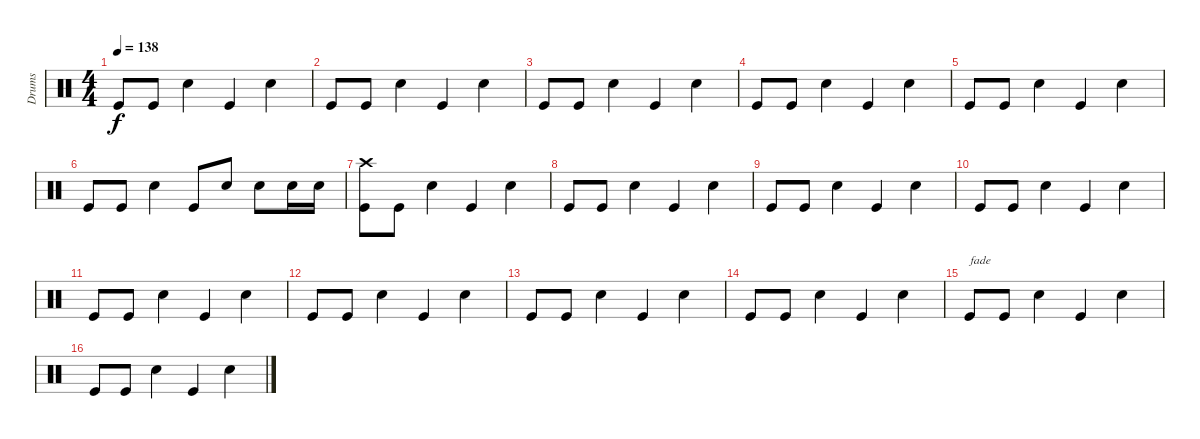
\track ("Drums" "Drums") {instrument percussion}
\staff {score}
\articulation defaults
\ts (4 4)
\tempo 138
\clef neutral
\ks c "Kick (hit)".8{dy f} "Kick (hit)".8 "Snare (hit) 2".4 "Kick (hit)".4 "Snare (hit) 2".4
|
"Kick (hit)".8 "Kick (hit)".8 "Snare (hit) 2".4 "Kick (hit)".4 "Snare (hit) 2".4 |
"Kick (hit)".8 "Kick (hit)".8 "Snare (hit) 2".4 "Kick (hit)".4 "Snare (hit) 2".4 |
"Kick (hit)".8 "Kick (hit)".8 "Snare (hit) 2".4 "Kick (hit)".4 "Snare (hit) 2".4 |
"Kick (hit)".8 "Kick (hit)".8 "Snare (hit) 2".4 "Kick (hit)".4 "Snare (hit) 2".4 |
"Kick (hit)".8 "Kick (hit)".8 "Snare (hit) 2".4 "Kick (hit)".8 "Snare (hit) 2".8 "Snare (hit) 2".8 "Snare (hit) 2".16 "Snare (hit) 2".16 |
("Crash high (hit)" "Kick (hit)").8 "Kick (hit)".8 "Snare (hit) 2".4 "Kick (hit)".4 "Snare (hit) 2".4 |
"Kick (hit)".8 "Kick (hit)".8 "Snare (hit) 2".4 "Kick (hit)".4 "Snare (hit) 2".4 |
"Kick (hit)".8 "Kick (hit)".8 "Snare (hit) 2".4 "Kick (hit)".4 "Snare (hit) 2".4 |
"Kick (hit)".8 "Kick (hit)".8 "Snare (hit) 2".4 "Kick (hit)".4 "Snare (hit) 2".4 |
"Kick (hit)".8 "Kick (hit)".8 "Snare (hit) 2".4 "Kick (hit)".4 "Snare (hit) 2".4 |
"Kick (hit)".8 "Kick (hit)".8 "Snare (hit) 2".4 "Kick (hit)".4 "Snare (hit) 2".4 |
"Kick (hit)".8 "Kick (hit)".8 "Snare (hit) 2".4 "Kick (hit)".4 "Snare (hit) 2".4 |
"Kick (hit)".8 "Kick (hit)".8 "Snare (hit) 2".4 "Kick (hit)".4 "Snare (hit) 2".4 |
"Kick (hit)".8{txt "fade " volume 10} "Kick (hit)".8 "Snare (hit) 2".4 "Kick (hit)".4 "Snare (hit) 2".4 |
"Kick (hit)".8{volume 8} "Kick (hit)".8 "Snare (hit) 2".4 "Kick (hit)".4 "Snare (hit) 2".4
